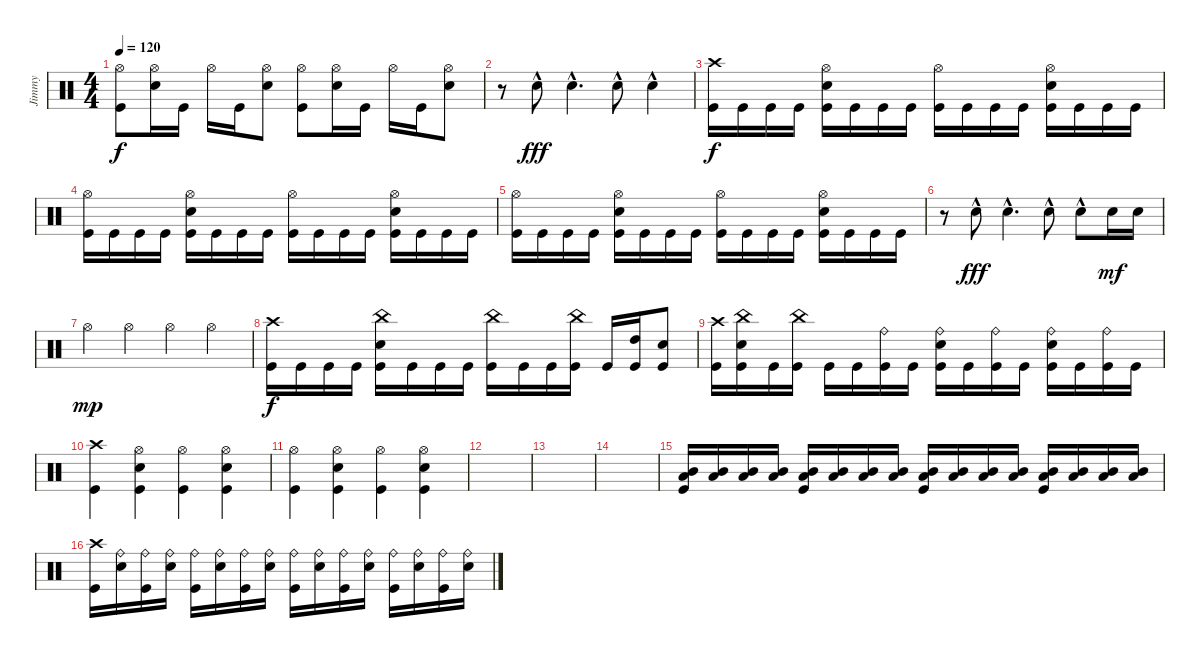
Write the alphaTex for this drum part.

\track ("Jimmy" "Jimmy") {instrument percussion}
\staff {score}
\articulation defaults
\ts (4 4)
\tempo 120
\clef neutral
\ks c
("Hi-Hat (open)" "Kick (hit)").8{dy f} ("Hi-Hat (open)" "Snare (hit) 2").16 "Kick (hit)".16 "Hi-Hat (open)".16 "Kick (hit)".16 ("Snare (hit) 2" "Hi-Hat (open)").8 ("Hi-Hat (open)" "Kick (hit)").8 ("Hi-Hat (open)" "Snare (hit) 2").16 "Kick (hit)".16 "Hi-Hat (open)".16 "Kick (hit)".16 ("Snare (hit) 2" "Hi-Hat (open)").8 |
r.8 "Hand Clap (hit)"{hac}.8{dy fff} "Hand Clap (hit)"{hac}.4{d} "Hand Clap (hit)"{hac}.8 "Hand Clap (hit)"{hac}.4 |
("Crash high (hit)" "Kick (hit)").16{dy f} "Kick (hit)".16 "Kick (hit)".16 "Kick (hit)".16 ("Kick (hit)" "Hi-Hat (open)" "Snare (hit) 2").16 "Kick (hit)".16 "Kick (hit)".16 "Kick (hit)".16 ("Kick (hit)" "Hi-Hat (open)").16 "Kick (hit)".16 "Kick (hit)".16 "Kick (hit)".16 ("Kick (hit)" "Snare (hit) 2" "Hi-Hat (open)").16 "Kick (hit)".16 "Kick (hit)".16 "Kick (hit)".16 |
("Kick (hit)" "Hi-Hat (open)").16 "Kick (hit)".16 "Kick (hit)".16 "Kick (hit)".16 ("Kick (hit)" "Snare (hit) 2" "Hi-Hat (open)").16 "Kick (hit)".16 "Kick (hit)".16 "Kick (hit)".16 ("Kick (hit)" "Hi-Hat (open)").16 "Kick (hit)".16 "Kick (hit)".16 "Kick (hit)".16 ("Kick (hit)" "Snare (hit) 2" "Hi-Hat (open)").16 "Kick (hit)".16 "Kick (hit)".16 "Kick (hit)".16 |
("Kick (hit)" "Hi-Hat (open)").16 "Kick (hit)".16 "Kick (hit)".16 "Kick (hit)".16 ("Kick (hit)" "Snare (hit) 2" "Hi-Hat (open)").16 "Kick (hit)".16 "Kick (hit)".16 "Kick (hit)".16 ("Kick (hit)" "Hi-Hat (open)").16 "Kick (hit)".16 "Kick (hit)".16 "Kick (hit)".16 ("Kick (hit)" "Snare (hit) 2" "Hi-Hat (open)").16 "Kick (hit)".16 "Kick (hit)".16 "Kick (hit)".16 |
r.8 "Hand Clap (hit)"{hac}.8{dy fff} "Hand Clap (hit)"{hac}.4{d} "Hand Clap (hit)"{hac}.8 "Hand Clap (hit)"{hac}.8 "Snare (hit) 2".16{dy mf} "Snare (hit) 2".16 |
"Hi-Hat (open)".4{dy mp} "Hi-Hat (open)".4 "Hi-Hat (open)".4 "Hi-Hat (open)".4 |
("Crash high (hit)" "Kick (hit)").16{dy f} "Kick (hit)".16 "Kick (hit)".16 "Kick (hit)".16 ("China (hit)" "Snare (hit) 2" "Kick (hit)").16 "Kick (hit)".16 "Kick (hit)".16 "Kick (hit)".16 ("China (hit)" "Kick (hit)").16 "Kick (hit)".16 "Kick (hit)".16 ("China (hit)" "Kick (hit)").16 "Kick (hit)".16 ("High Tom (hit)" "Kick (hit)").16 ("Snare (hit) 2" "Kick (hit)").8 |
("Crash high (hit)" "Kick (hit)").16 ("China (hit)" "Snare (hit) 2" "Kick (hit)").16 "Kick (hit)".16 ("China (hit)" "Kick (hit)").16 "Kick (hit)".16 "Kick (hit)".16 ("Kick (hit)" "Ride (bell)").16 "Kick (hit)".16 ("Kick (hit)" "Ride (bell)" "Snare (hit) 2").16 "Kick (hit)".16 ("Ride (bell)" "Kick (hit)").16 "Kick (hit)".16 ("Ride (bell)" "Kick (hit)" "Snare (hit) 2").16 "Kick (hit)".16 ("Ride (bell)" "Kick (hit)").16 "Kick (hit)".16 |
("Crash high (hit)" "Kick (hit)").4 ("Hi-Hat (open)" "Snare (hit) 2" "Kick (hit)").4 ("Hi-Hat (open)" "Kick (hit)").4 ("Snare (hit) 2" "Hi-Hat (open)" "Kick (hit)").4 |
("Hi-Hat (open)" "Kick (hit)").4 ("Hi-Hat (open)" "Snare (hit) 2" "Kick (hit)").4 ("Hi-Hat (open)" "Kick (hit)").4 ("Snare (hit) 2" "Hi-Hat (open)" "Kick (hit)").4 |
|
|
|
("Mid Tom (hit)" "Low Tom (hit)" "Kick (hit)").16{volume 13} ("Mid Tom (hit)" "Low Tom (hit)").16 ("Mid Tom (hit)" "Low Tom (hit)").16 ("Mid Tom (hit)" "Low Tom (hit)").16 ("Kick (hit)" "Low Tom (hit)" "Mid Tom (hit)").16 ("Low Tom (hit)" "Mid Tom (hit)").16 ("Low Tom (hit)" "Mid Tom (hit)").16 ("Low Tom (hit)" "Mid Tom (hit)").16 ("Low Tom (hit)" "Mid Tom (hit)" "Kick (hit)").16 ("Mid Tom (hit)" "Low Tom (hit)").16 ("Mid Tom (hit)" "Low Tom (hit)").16 ("Mid Tom (hit)" "Low Tom (hit)").16 ("Kick (hit)" "Low Tom (hit)" "Mid Tom (hit)").16 ("Low Tom (hit)" "Mid Tom (hit)").16 ("Mid Tom (hit)" "Low Tom (hit)").16 ("Low Tom (hit)" "Mid Tom (hit)").16 |
("Kick (hit)" "Crash high (hit)").16 ("Snare (hit) 2" "Ride (bell)").16 ("Kick (hit)" "Ride (bell)").16 ("Snare (hit) 2" "Ride (bell)").16 ("Kick (hit)" "Ride (bell)").16 ("Snare (hit) 2" "Ride (bell)").16 ("Kick (hit)" "Ride (bell)").16 ("Snare (hit) 2" "Ride (bell)").16 ("Kick (hit)" "Ride (bell)").16 ("Snare (hit) 2" "Ride (bell)").16 ("Kick (hit)" "Ride (bell)").16 ("Snare (hit) 2" "Ride (bell)").16 ("Kick (hit)" "Ride (bell)").16 ("Snare (hit) 2" "Ride (bell)").16 ("Kick (hit)" "Ride (bell)").16 ("Snare (hit) 2" "Ride (bell)").16
